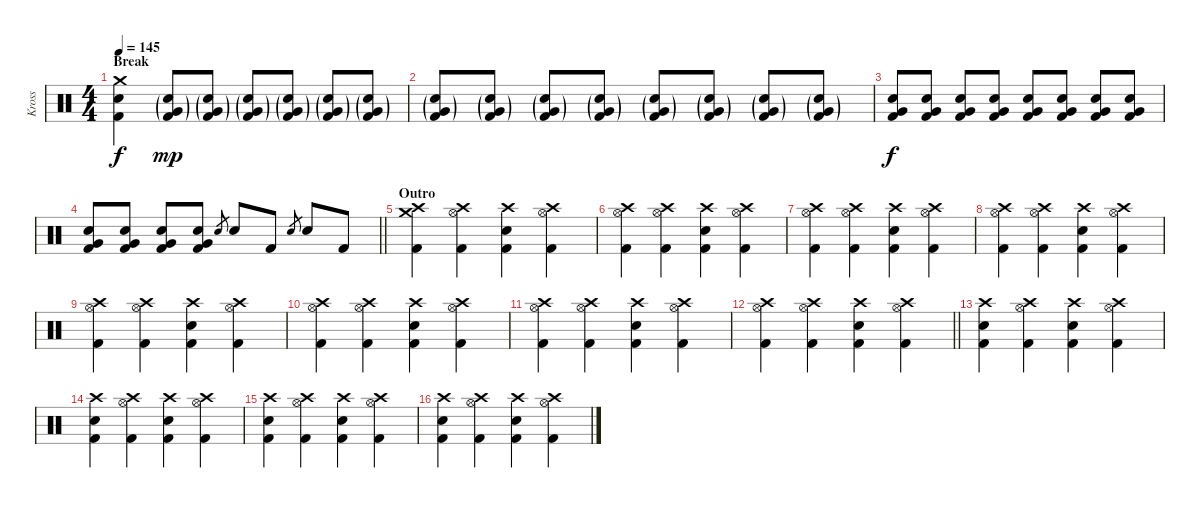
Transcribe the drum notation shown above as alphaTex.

\track ("Kross" "Kross") {instrument percussion}
\staff {score}
\articulation defaults
\ts (4 4)
\section ("" "Break")
\tempo 145
\clef neutral
\ks c
("Crash medium (hit)" "Electric Snare (hit)" "Kick (hit) 2").4{dy f} ("Electric Snare (hit)"{g} "Very Low Tom (hit)"{g} "Kick (hit) 2"{g}).8{dy mp} ("Electric Snare (hit)"{g} "Very Low Tom (hit)"{g} "Kick (hit) 2"{g}).8 ("Electric Snare (hit)"{g} "Very Low Tom (hit)"{g} "Kick (hit) 2"{g}).8 ("Electric Snare (hit)"{g} "Very Low Tom (hit)"{g} "Kick (hit) 2"{g}).8 ("Electric Snare (hit)"{g} "Very Low Tom (hit)"{g} "Kick (hit) 2"{g}).8 ("Electric Snare (hit)"{g} "Very Low Tom (hit)"{g} "Kick (hit) 2"{g}).8 |
("Electric Snare (hit)"{g} "Very Low Tom (hit)"{g} "Kick (hit) 2"{g}).8 ("Electric Snare (hit)"{g} "Very Low Tom (hit)"{g} "Kick (hit) 2"{g}).8 ("Electric Snare (hit)"{g} "Very Low Tom (hit)"{g} "Kick (hit) 2"{g}).8 ("Electric Snare (hit)"{g} "Very Low Tom (hit)"{g} "Kick (hit) 2"{g}).8 ("Electric Snare (hit)"{g} "Very Low Tom (hit)"{g} "Kick (hit) 2"{g}).8 ("Electric Snare (hit)"{g} "Very Low Tom (hit)"{g} "Kick (hit) 2"{g}).8 ("Electric Snare (hit)"{g} "Very Low Tom (hit)"{g} "Kick (hit) 2"{g}).8 ("Electric Snare (hit)"{g} "Very Low Tom (hit)"{g} "Kick (hit) 2"{g}).8 |
("Electric Snare (hit)" "Very Low Tom (hit)" "Kick (hit) 2").8{dy f} ("Electric Snare (hit)" "Very Low Tom (hit)" "Kick (hit) 2").8 ("Electric Snare (hit)" "Very Low Tom (hit)" "Kick (hit) 2").8 ("Electric Snare (hit)" "Very Low Tom (hit)" "Kick (hit) 2").8 ("Electric Snare (hit)" "Very Low Tom (hit)" "Kick (hit) 2").8 ("Electric Snare (hit)" "Very Low Tom (hit)" "Kick (hit) 2").8 ("Electric Snare (hit)" "Very Low Tom (hit)" "Kick (hit) 2").8 ("Electric Snare (hit)" "Very Low Tom (hit)" "Kick (hit) 2").8 |
\barLineRight lightlight
("Electric Snare (hit)" "Very Low Tom (hit)" "Kick (hit) 2").8 ("Electric Snare (hit)" "Very Low Tom (hit)" "Kick (hit) 2").8 ("Electric Snare (hit)" "Very Low Tom (hit)" "Kick (hit) 2").8 ("Electric Snare (hit)" "Very Low Tom (hit)" "Kick (hit) 2").8 "Electric Snare (hit)".8{gr} "Electric Snare (hit)".8 "Kick (hit) 2".8 "Electric Snare (hit)".8{gr} "Electric Snare (hit)".8 "Kick (hit) 2".8 |
\section ("" "Outro")
("Crash medium (hit)" "Crash high (hit)" "Kick (hit) 2").4 ("Crash high (hit)" "Hi-Hat (open)" "Kick (hit) 2").4 ("Crash high (hit)" "Electric Snare (hit)" "Kick (hit) 2").4 ("Crash high (hit)" "Hi-Hat (open)" "Kick (hit) 2").4 |
("Crash high (hit)" "Hi-Hat (open)" "Kick (hit) 2").4 ("Crash high (hit)" "Hi-Hat (open)" "Kick (hit) 2").4 ("Crash high (hit)" "Electric Snare (hit)" "Kick (hit) 2").4 ("Crash high (hit)" "Hi-Hat (open)" "Kick (hit) 2").4 |
("Crash high (hit)" "Hi-Hat (open)" "Kick (hit) 2").4 ("Crash high (hit)" "Hi-Hat (open)" "Kick (hit) 2").4 ("Crash high (hit)" "Electric Snare (hit)" "Kick (hit) 2").4 ("Crash high (hit)" "Hi-Hat (open)" "Kick (hit) 2").4 |
("Crash high (hit)" "Hi-Hat (open)" "Kick (hit) 2").4 ("Crash high (hit)" "Hi-Hat (open)" "Kick (hit) 2").4 ("Crash high (hit)" "Electric Snare (hit)" "Kick (hit) 2").4 ("Crash high (hit)" "Hi-Hat (open)" "Kick (hit) 2").4 |
("Crash high (hit)" "Hi-Hat (open)" "Kick (hit) 2").4{volume 12} ("Crash high (hit)" "Hi-Hat (open)" "Kick (hit) 2").4 ("Crash high (hit)" "Electric Snare (hit)" "Kick (hit) 2").4 ("Crash high (hit)" "Hi-Hat (open)" "Kick (hit) 2").4 |
("Crash high (hit)" "Hi-Hat (open)" "Kick (hit) 2").4 ("Crash high (hit)" "Hi-Hat (open)" "Kick (hit) 2").4 ("Crash high (hit)" "Electric Snare (hit)" "Kick (hit) 2").4 ("Crash high (hit)" "Hi-Hat (open)" "Kick (hit) 2").4 |
("Crash high (hit)" "Hi-Hat (open)" "Kick (hit) 2").4 ("Crash high (hit)" "Hi-Hat (open)" "Kick (hit) 2").4 ("Crash high (hit)" "Electric Snare (hit)" "Kick (hit) 2").4 ("Crash high (hit)" "Hi-Hat (open)" "Kick (hit) 2").4 |
\barLineRight lightlight
("Crash high (hit)" "Hi-Hat (open)" "Kick (hit) 2").4 ("Crash high (hit)" "Hi-Hat (open)" "Kick (hit) 2").4 ("Crash high (hit)" "Electric Snare (hit)" "Kick (hit) 2").4 ("Crash high (hit)" "Hi-Hat (open)" "Kick (hit) 2").4 |
("Crash high (hit)" "Electric Snare (hit)" "Kick (hit) 2").4{volume 8} ("Crash high (hit)" "Hi-Hat (open)" "Kick (hit) 2").4 ("Crash high (hit)" "Electric Snare (hit)" "Kick (hit) 2").4 ("Crash high (hit)" "Hi-Hat (open)" "Kick (hit) 2").4 |
("Crash high (hit)" "Electric Snare (hit)" "Kick (hit) 2").4 ("Crash high (hit)" "Hi-Hat (open)" "Kick (hit) 2").4 ("Crash high (hit)" "Electric Snare (hit)" "Kick (hit) 2").4 ("Crash high (hit)" "Hi-Hat (open)" "Kick (hit) 2").4 |
("Crash high (hit)" "Electric Snare (hit)" "Kick (hit) 2").4 ("Crash high (hit)" "Hi-Hat (open)" "Kick (hit) 2").4 ("Crash high (hit)" "Electric Snare (hit)" "Kick (hit) 2").4 ("Crash high (hit)" "Hi-Hat (open)" "Kick (hit) 2").4 |
("Crash high (hit)" "Electric Snare (hit)" "Kick (hit) 2").4 ("Crash high (hit)" "Hi-Hat (open)" "Kick (hit) 2").4 ("Crash high (hit)" "Electric Snare (hit)" "Kick (hit) 2").4 ("Crash high (hit)" "Hi-Hat (open)" "Kick (hit) 2").4
